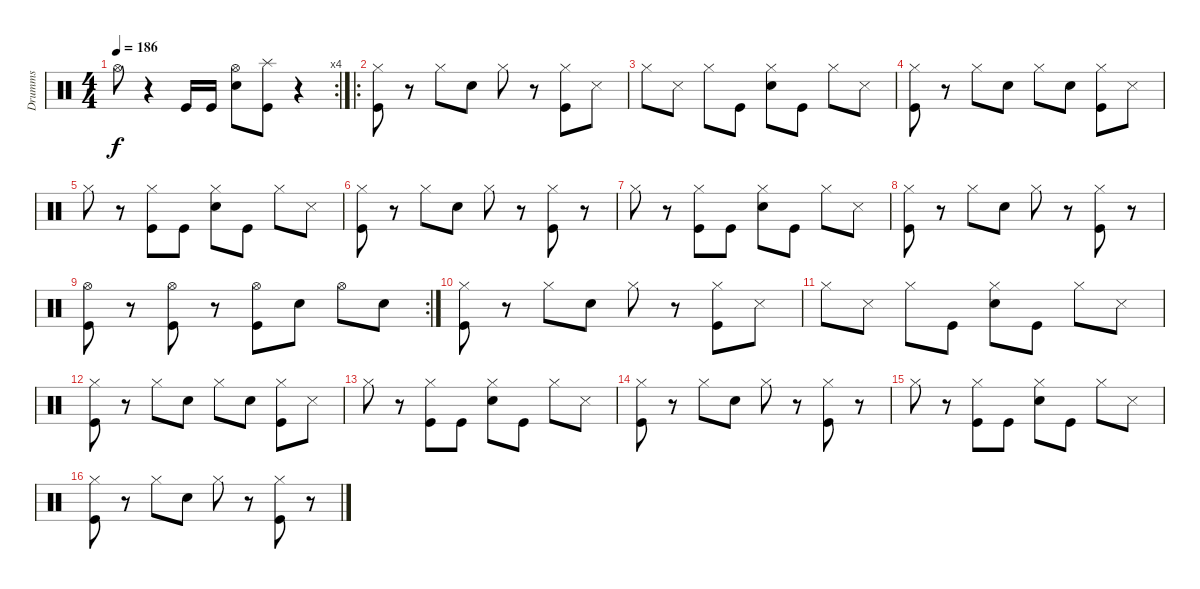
\track ("Drumms" "Drumms") {instrument percussion}
\staff {score}
\articulation defaults
\rc 4
\ts (4 4)
\tempo 186
\clef neutral
\ks c "Hi-Hat (open)".8{dy f}
r.4 "Kick (hit)".16 "Kick (hit)".16 ("Hi-Hat (open)" "Snare (hit) 2").8 ("Splash (hit)" "Kick (hit)").8 r.4 |
\ro
("Hi-Hat (closed)" "Kick (hit)").8 r.8 "Hi-Hat (closed)".8 "Snare (hit) 2".8 "Hi-Hat (closed)".8 r.8 ("Hi-Hat (closed)" "Kick (hit)").8 "Metronome (hit)".8 |
"Hi-Hat (closed)".8 "Metronome (hit)".8 "Hi-Hat (closed)".8 "Kick (hit)".8 ("Hi-Hat (closed)" "Snare (hit) 2").8 "Kick (hit)".8 "Hi-Hat (closed)".8 "Metronome (hit)".8 |
("Hi-Hat (closed)" "Kick (hit)").8 r.8 "Hi-Hat (closed)".8 "Snare (hit) 2".8 "Hi-Hat (closed)".8 "Snare (hit) 2".8 ("Hi-Hat (closed)" "Kick (hit)").8 "Metronome (hit)".8 |
"Hi-Hat (closed)".8 r.8 ("Hi-Hat (closed)" "Kick (hit)").8 "Kick (hit)".8 ("Hi-Hat (closed)" "Snare (hit) 2").8 "Kick (hit)".8 "Hi-Hat (closed)".8 "Metronome (hit)".8 |
("Hi-Hat (closed)" "Kick (hit)").8 r.8 "Hi-Hat (closed)".8 "Snare (hit) 2".8 "Hi-Hat (closed)".8 r.8 ("Hi-Hat (closed)" "Kick (hit)").8 r.8 |
"Hi-Hat (closed)".8 r.8 ("Hi-Hat (closed)" "Kick (hit)").8 "Kick (hit)".8 ("Hi-Hat (closed)" "Snare (hit) 2").8 "Kick (hit)".8 "Hi-Hat (closed)".8 "Metronome (hit)".8 |
("Hi-Hat (closed)" "Kick (hit)").8 r.8 "Hi-Hat (closed)".8 "Snare (hit) 2".8 "Hi-Hat (closed)".8 r.8 ("Hi-Hat (closed)" "Kick (hit)").8 r.8 |
\rc 2
("Hi-Hat (open)" "Kick (hit)").8 r.8 ("Hi-Hat (open)" "Kick (hit)").8 r.8 ("Hi-Hat (open)" "Kick (hit)").8 "Snare (hit) 2".8 "Hi-Hat (open)".8 "Snare (hit) 2".8 |
("Hi-Hat (closed)" "Kick (hit)").8 r.8 "Hi-Hat (closed)".8 "Snare (hit) 2".8 "Hi-Hat (closed)".8 r.8 ("Hi-Hat (closed)" "Kick (hit)").8 "Metronome (hit)".8 |
"Hi-Hat (closed)".8 "Metronome (hit)".8 "Hi-Hat (closed)".8 "Kick (hit)".8 ("Hi-Hat (closed)" "Snare (hit) 2").8 "Kick (hit)".8 "Hi-Hat (closed)".8 "Metronome (hit)".8 |
("Hi-Hat (closed)" "Kick (hit)").8 r.8 "Hi-Hat (closed)".8 "Snare (hit) 2".8 "Hi-Hat (closed)".8 "Snare (hit) 2".8 ("Hi-Hat (closed)" "Kick (hit)").8 "Metronome (hit)".8 |
"Hi-Hat (closed)".8 r.8 ("Hi-Hat (closed)" "Kick (hit)").8 "Kick (hit)".8 ("Hi-Hat (closed)" "Snare (hit) 2").8 "Kick (hit)".8 "Hi-Hat (closed)".8 "Metronome (hit)".8 |
("Hi-Hat (closed)" "Kick (hit)").8 r.8 "Hi-Hat (closed)".8 "Snare (hit) 2".8 "Hi-Hat (closed)".8 r.8 ("Hi-Hat (closed)" "Kick (hit)").8 r.8 |
"Hi-Hat (closed)".8 r.8 ("Hi-Hat (closed)" "Kick (hit)").8 "Kick (hit)".8 ("Hi-Hat (closed)" "Snare (hit) 2").8 "Kick (hit)".8 "Hi-Hat (closed)".8 "Metronome (hit)".8 |
("Hi-Hat (closed)" "Kick (hit)").8 r.8 "Hi-Hat (closed)".8 "Snare (hit) 2".8 "Hi-Hat (closed)".8 r.8 ("Hi-Hat (closed)" "Kick (hit)").8 r.8
